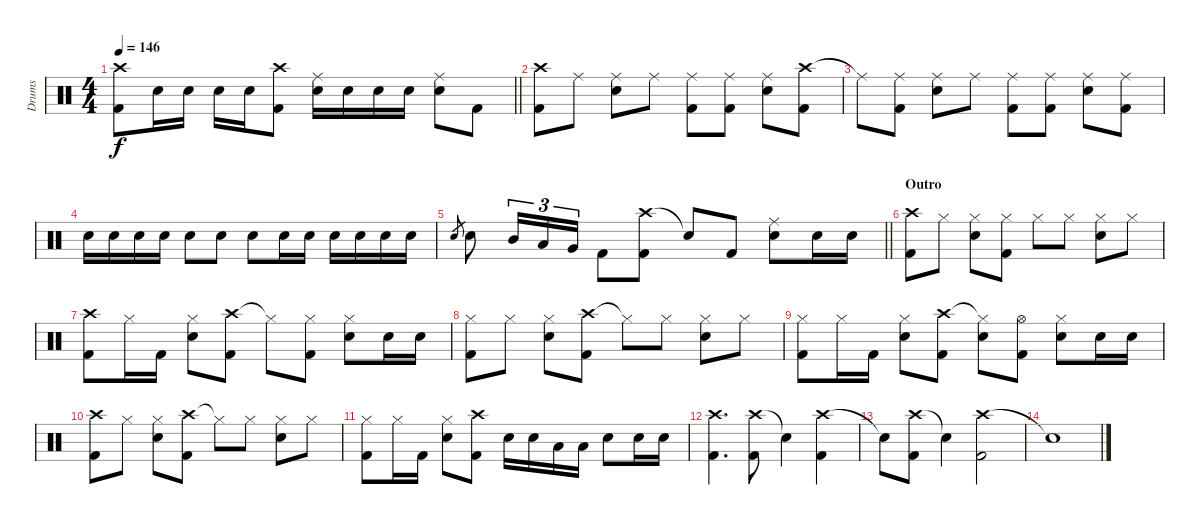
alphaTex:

\track ("Drums" "Drums") {instrument percussion}
\staff {score}
\articulation defaults
\ts (4 4)
\tempo 146
\clef neutral
\barLineRight lightlight
\ks c
("Crash high (hit)" "Kick (hit) 2").8{dy f} "Snare (hit) 2".16 "Snare (hit) 2".16 "Snare (hit) 2".16 "Snare (hit) 2".16 ("Crash high (hit)" "Kick (hit) 2").8 ("Ride (middle)" "Snare (hit) 2").16 "Snare (hit) 2".16 "Snare (hit) 2".16 "Snare (hit) 2".16 ("Ride (middle)" "Snare (hit) 2").8 "Kick (hit) 2".8 |
("Crash high (hit)" "Kick (hit) 2").8 "Ride (middle)".8 ("Ride (middle)" "Snare (hit) 2").8 "Ride (middle)".8 ("Ride (middle)" "Kick (hit) 2").8 ("Ride (middle)" "Kick (hit) 2").8 ("Ride (middle)" "Snare (hit) 2").8 ("Crash high (hit)" "Kick (hit) 2").8 |
"Ride (middle)"{t}.8 ("Ride (middle)" "Kick (hit) 2").8 ("Ride (middle)" "Snare (hit) 2").8 "Ride (middle)".8 ("Ride (middle)" "Kick (hit) 2").8 ("Ride (middle)" "Kick (hit) 2").8 ("Ride (middle)" "Snare (hit) 2").8 ("Ride (middle)" "Kick (hit) 2").8 |
"Snare (hit) 2".16 "Snare (hit) 2".16 "Snare (hit) 2".16 "Snare (hit) 2".16 "Snare (hit) 2".8 "Snare (hit) 2".8 "Snare (hit) 2".8 "Snare (hit) 2".16 "Snare (hit) 2".16 "Snare (hit) 2".16 "Snare (hit) 2".16 "Snare (hit) 2".16 "Snare (hit) 2".16 |
\barLineRight lightlight "Snare (hit) 2".8{gr} "Snare (hit) 2".8 "Mid Tom (hit)".16{tu (3 2)} "Low Tom (hit)".16{tu (3 2)} "Very Low Tom (hit)".16{tu (3 2)} "Kick (hit) 2".8
("Crash high (hit)" "Kick (hit) 2").8 "Snare (hit)"{t}.8 "Kick (hit) 2".8 ("Ride (middle)" "Snare (hit) 2").8 "Snare (hit) 2".16 "Snare (hit) 2".16 |
\section ("" "Outro")
("Crash high (hit)" "Kick (hit) 2").8 "Hi-Hat (closed)".8 ("Hi-Hat (closed)" "Snare (hit) 2").8 ("Hi-Hat (closed)" "Kick (hit) 2").8 "Hi-Hat (closed)".8 "Hi-Hat (closed)".8 ("Hi-Hat (closed)" "Snare (hit) 2").8 "Hi-Hat (closed)".8 |
("Crash high (hit)" "Kick (hit) 2").8 "Hi-Hat (closed)".16 "Kick (hit) 2".16 ("Hi-Hat (closed)" "Snare (hit) 2").8 ("Crash high (hit)" "Kick (hit) 2").8 "Hi-Hat (closed)"{t}.8 ("Hi-Hat (closed)" "Kick (hit) 2").8 ("Hi-Hat (closed)" "Snare (hit) 2").8 "Snare (hit) 2".16 "Snare (hit) 2".16 |
("Hi-Hat (closed)" "Kick (hit) 2").8 "Hi-Hat (closed)".8 ("Hi-Hat (closed)" "Snare (hit) 2").8 ("Crash high (hit)" "Kick (hit) 2").8 "Hi-Hat (closed)"{t}.8 "Hi-Hat (closed)".8 ("Hi-Hat (closed)" "Snare (hit) 2").8 "Hi-Hat (closed)".8 |
("Hi-Hat (closed)" "Kick (hit) 2").8 "Hi-Hat (closed)".16 "Kick (hit) 2".16 ("Hi-Hat (closed)" "Snare (hit) 2").8 ("Crash high (hit)" "Kick (hit) 2").8 ("Hi-Hat (closed)"{t} "Snare (hit) 2").8 ("Hi-Hat (open)" "Kick (hit) 2").8 ("Hi-Hat (closed)" "Snare (hit) 2").8 "Snare (hit) 2".16 "Snare (hit) 2".16 |
("Crash high (hit)" "Kick (hit) 2").8 "Hi-Hat (closed)".8 ("Hi-Hat (closed)" "Snare (hit) 2").8 ("Crash high (hit)" "Kick (hit) 2").8 "Hi-Hat (closed)"{t}.8 "Hi-Hat (closed)".8 ("Hi-Hat (closed)" "Snare (hit) 2").8 "Hi-Hat (closed)".8 |
("Hi-Hat (closed)" "Kick (hit) 2").8 "Hi-Hat (closed)".16 "Kick (hit) 2".16 ("Hi-Hat (closed)" "Snare (hit) 2").8 ("Crash high (hit)" "Kick (hit) 2").8 "Snare (hit) 2".16 "Snare (hit) 2".16 "Low Tom (hit)".16 "Low Tom (hit)".16 "Snare (hit) 2".8 "Snare (hit) 2".16 "Snare (hit) 2".16 |
("Crash high (hit)" "Kick (hit) 2").4{d} ("Crash high (hit)" "Kick (hit) 2").8 "Snare (hit)"{t}.4 ("Crash high (hit)" "Kick (hit) 2").4 |
"Snare (hit)"{t}.8 ("Crash high (hit)" "Kick (hit) 2").8 "Snare (hit)"{t}.4 ("Crash high (hit)" "Kick (hit) 2").2 |
"Snare (hit)"{t}.1
